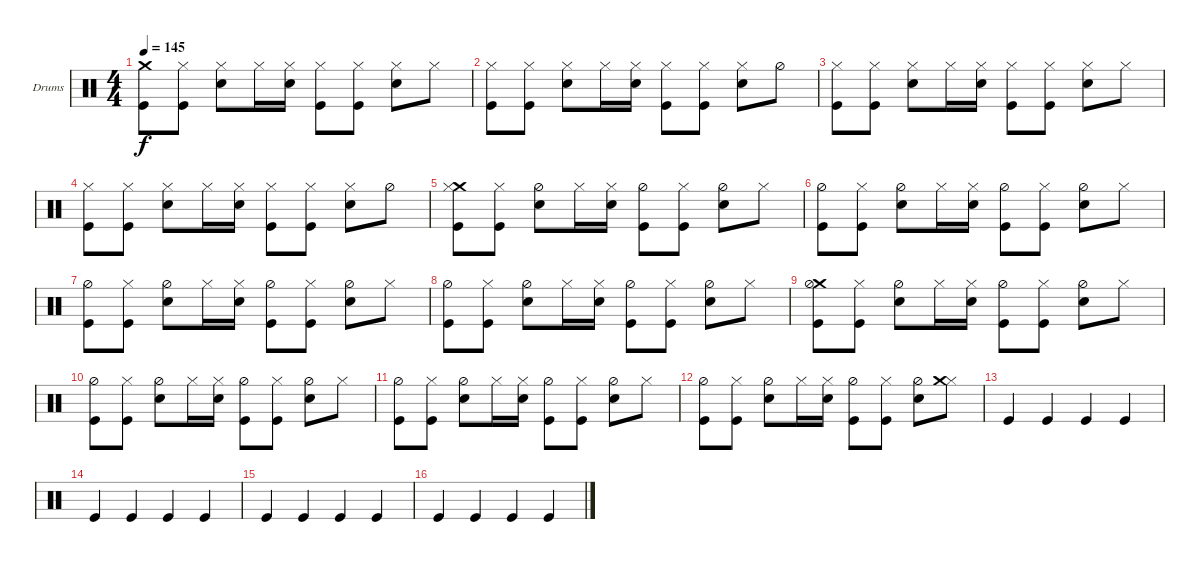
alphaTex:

\defaultSystemsLayout 4
\bracketExtendMode groupsimilarinstruments
\firstSystemTrackNameOrientation horizontal
\otherSystemsTrackNameOrientation horizontal
\track ("Drumkit" "Drums") {instrument percussion}
\staff {score}
\articulation defaults
\ts (4 4)
\tempo 145
\clef neutral
\ks c
("Kick (hit)" "Crash medium (hit)").8{dy f} ("Kick (hit)" "Hi-Hat (closed)").8 ("Snare (hit) 2" "Hi-Hat (closed)").8 "Hi-Hat (closed)".16 ("Snare (hit) 2" "Hi-Hat (closed)").16 ("Kick (hit)" "Hi-Hat (closed)").8 ("Kick (hit)" "Hi-Hat (closed)").8 ("Snare (hit) 2" "Hi-Hat (closed)").8 "Hi-Hat (closed)".8 |
("Kick (hit)" "Hi-Hat (closed)").8 ("Kick (hit)" "Hi-Hat (closed)").8 ("Snare (hit) 2" "Hi-Hat (closed)").8 "Hi-Hat (closed)".16 ("Snare (hit) 2" "Hi-Hat (closed)").16 ("Kick (hit)" "Hi-Hat (closed)").8 ("Kick (hit)" "Hi-Hat (closed)").8 ("Snare (hit) 2" "Hi-Hat (closed)").8 "Hi-Hat (half)".8 |
("Kick (hit)" "Hi-Hat (closed)").8 ("Kick (hit)" "Hi-Hat (closed)").8 ("Snare (hit) 2" "Hi-Hat (closed)").8 "Hi-Hat (closed)".16 ("Snare (hit) 2" "Hi-Hat (closed)").16 ("Kick (hit)" "Hi-Hat (closed)").8 ("Kick (hit)" "Hi-Hat (closed)").8 ("Snare (hit) 2" "Hi-Hat (closed)").8 "Hi-Hat (closed)".8 |
("Kick (hit)" "Hi-Hat (closed)").8 ("Kick (hit)" "Hi-Hat (closed)").8 ("Snare (hit) 2" "Hi-Hat (closed)").8 "Hi-Hat (closed)".16 ("Snare (hit) 2" "Hi-Hat (closed)").16 ("Kick (hit)" "Hi-Hat (closed)").8 ("Kick (hit)" "Hi-Hat (closed)").8 ("Snare (hit) 2" "Hi-Hat (closed)").8 "Hi-Hat (half)".8 |
("Kick (hit)" "Crash medium (hit)" "Hi-Hat (closed)").8 ("Kick (hit)" "Hi-Hat (closed)").8 ("Snare (hit) 2" "Hi-Hat (half)").8 "Hi-Hat (closed)".16 ("Snare (hit) 2" "Hi-Hat (closed)").16 ("Kick (hit)" "Hi-Hat (half)").8 ("Kick (hit)" "Hi-Hat (closed)").8 ("Snare (hit) 2" "Hi-Hat (half)").8 "Hi-Hat (closed)".8 |
("Kick (hit)" "Hi-Hat (half)").8 ("Kick (hit)" "Hi-Hat (closed)").8 ("Snare (hit) 2" "Hi-Hat (half)").8 "Hi-Hat (closed)".16 ("Snare (hit) 2" "Hi-Hat (closed)").16 ("Kick (hit)" "Hi-Hat (half)").8 ("Kick (hit)" "Hi-Hat (closed)").8 ("Snare (hit) 2" "Hi-Hat (half)").8 "Hi-Hat (closed)".8 |
("Kick (hit)" "Hi-Hat (half)").8 ("Kick (hit)" "Hi-Hat (closed)").8 ("Snare (hit) 2" "Hi-Hat (half)").8 "Hi-Hat (closed)".16 ("Snare (hit) 2" "Hi-Hat (closed)").16 ("Kick (hit)" "Hi-Hat (half)").8 ("Kick (hit)" "Hi-Hat (closed)").8 ("Snare (hit) 2" "Hi-Hat (half)").8 "Hi-Hat (closed)".8 |
("Kick (hit)" "Hi-Hat (half)").8 ("Kick (hit)" "Hi-Hat (closed)").8 ("Snare (hit) 2" "Hi-Hat (half)").8 "Hi-Hat (closed)".16 ("Snare (hit) 2" "Hi-Hat (closed)").16 ("Kick (hit)" "Hi-Hat (half)").8 ("Kick (hit)" "Hi-Hat (closed)").8 ("Snare (hit) 2" "Hi-Hat (half)").8 "Hi-Hat (closed)".8 |
("Kick (hit)" "Crash medium (hit)" "Hi-Hat (half)").8 ("Kick (hit)" "Hi-Hat (closed)").8 ("Snare (hit) 2" "Hi-Hat (half)").8 "Hi-Hat (closed)".16 ("Snare (hit) 2" "Hi-Hat (closed)").16 ("Kick (hit)" "Hi-Hat (half)").8 ("Kick (hit)" "Hi-Hat (closed)").8 ("Snare (hit) 2" "Hi-Hat (half)").8 "Hi-Hat (closed)".8 |
("Kick (hit)" "Hi-Hat (half)").8 ("Kick (hit)" "Hi-Hat (closed)").8 ("Snare (hit) 2" "Hi-Hat (half)").8 "Hi-Hat (closed)".16 ("Snare (hit) 2" "Hi-Hat (closed)").16 ("Kick (hit)" "Hi-Hat (half)").8 ("Kick (hit)" "Hi-Hat (closed)").8 ("Snare (hit) 2" "Hi-Hat (half)").8 "Hi-Hat (closed)".8 |
("Kick (hit)" "Hi-Hat (half)").8 ("Kick (hit)" "Hi-Hat (closed)").8 ("Snare (hit) 2" "Hi-Hat (half)").8 "Hi-Hat (closed)".16 ("Snare (hit) 2" "Hi-Hat (closed)").16 ("Kick (hit)" "Hi-Hat (half)").8 ("Kick (hit)" "Hi-Hat (closed)").8 ("Snare (hit) 2" "Hi-Hat (half)").8 "Hi-Hat (closed)".8 |
("Kick (hit)" "Hi-Hat (half)").8 ("Kick (hit)" "Hi-Hat (closed)").8 ("Snare (hit) 2" "Hi-Hat (half)").8 "Hi-Hat (closed)".16 ("Snare (hit) 2" "Hi-Hat (closed)").16 ("Kick (hit)" "Hi-Hat (half)").8 ("Kick (hit)" "Hi-Hat (closed)").8 ("Snare (hit) 2" "Hi-Hat (half)").8 ("Hi-Hat (closed)" "Crash medium (hit)").8 |
"Kick (hit)".4 "Kick (hit)".4 "Kick (hit)".4 "Kick (hit)".4 |
"Kick (hit)".4 "Kick (hit)".4 "Kick (hit)".4 "Kick (hit)".4 |
"Kick (hit)".4 "Kick (hit)".4 "Kick (hit)".4 "Kick (hit)".4 |
"Kick (hit)".4 "Kick (hit)".4 "Kick (hit)".4 "Kick (hit)".4
